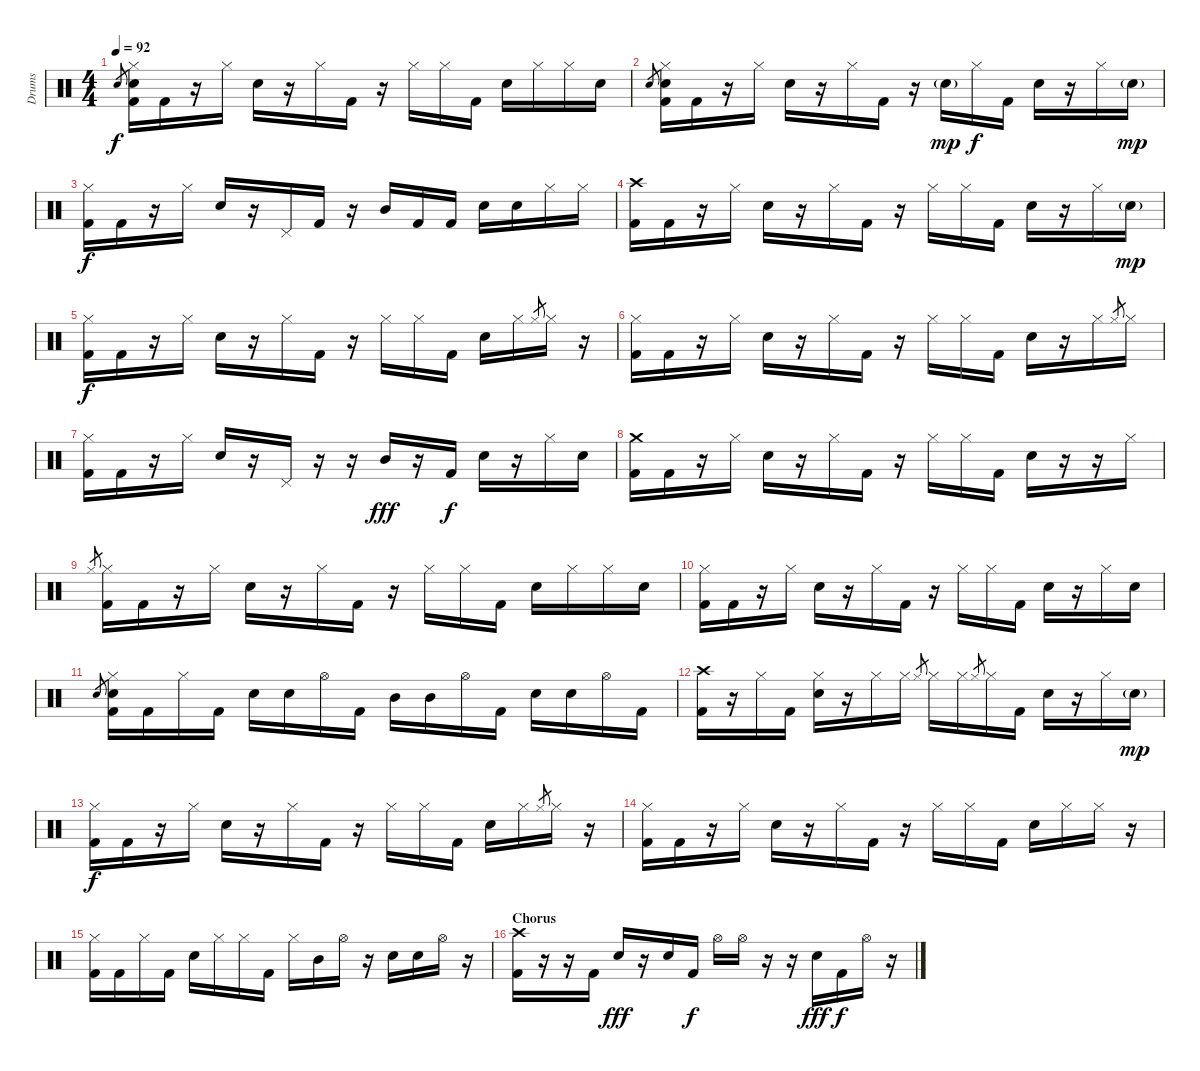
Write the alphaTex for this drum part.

\track ("Drums" "Drums") {instrument percussion}
\staff {score}
\articulation defaults
\ts (4 4)
\tempo 92
\clef neutral
\ks c "Electric Snare (hit)".8{gr dy f}
("Kick (hit) 2" "Hi-Hat (closed)" "Electric Snare (hit)").16 "Kick (hit) 2".16 r.16 "Hi-Hat (closed)".16 "Electric Snare (hit)".16 r.16 "Hi-Hat (closed)".16 "Kick (hit) 2".16 r.16 "Hi-Hat (closed)".16 "Hi-Hat (closed)".16 "Kick (hit) 2".16 "Electric Snare (hit)".16 "Hi-Hat (closed)".16 "Hi-Hat (closed)".16 "Electric Snare (hit)".16 |
"Electric Snare (hit)".8{gr} ("Kick (hit) 2" "Hi-Hat (closed)" "Electric Snare (hit)").16 "Kick (hit) 2".16 r.16 "Hi-Hat (closed)".16 "Electric Snare (hit)".16 r.16 "Hi-Hat (closed)".16 "Kick (hit) 2".16 r.16 "Electric Snare (hit)"{g}.16{dy mp} "Hi-Hat (closed)".16{dy f} "Kick (hit) 2".16 "Electric Snare (hit)".16 r.16 "Hi-Hat (closed)".16 "Electric Snare (hit)"{g}.16{dy mp} |
("Kick (hit) 2" "Hi-Hat (closed)").16{dy f} "Kick (hit) 2".16 r.16 "Hi-Hat (closed)".16 "Electric Snare (hit)".16 r.16 "Pedal Hi-Hat (hit)".16 "Kick (hit) 2".16 r.16 "Mid Tom (hit)".16 "Kick (hit) 2".16 "Kick (hit) 2".16 "Electric Snare (hit)".16 "Electric Snare (hit)".16 "Hi-Hat (closed)".16 "Hi-Hat (closed)".16 |
("Kick (hit) 2" "Crash high (hit)").16 "Kick (hit) 2".16 r.16 "Hi-Hat (closed)".16 "Electric Snare (hit)".16 r.16 "Hi-Hat (closed)".16 "Kick (hit) 2".16 r.16 "Hi-Hat (closed)".16 "Hi-Hat (closed)".16 "Kick (hit) 2".16 "Electric Snare (hit)".16 r.16 "Hi-Hat (closed)".16 "Electric Snare (hit)"{g}.16{dy mp} |
("Kick (hit) 2" "Hi-Hat (closed)").16{dy f} "Kick (hit) 2".16 r.16 "Hi-Hat (closed)".16 "Electric Snare (hit)".16 r.16 "Hi-Hat (closed)".16 "Kick (hit) 2".16 r.16 "Hi-Hat (closed)".16 "Hi-Hat (closed)".16 "Kick (hit) 2".16 "Electric Snare (hit)".16 "Hi-Hat (closed)".16 "Hi-Hat (closed)".8{gr} "Hi-Hat (closed)".16 r.16 |
("Kick (hit) 2" "Hi-Hat (closed)").16 "Kick (hit) 2".16 r.16 "Hi-Hat (closed)".16 "Electric Snare (hit)".16 r.16 "Hi-Hat (closed)".16 "Kick (hit) 2".16 r.16 "Hi-Hat (closed)".16 "Hi-Hat (closed)".16 "Kick (hit) 2".16 "Electric Snare (hit)".16 r.16 "Hi-Hat (closed)".16 "Hi-Hat (closed)".8{gr} "Hi-Hat (closed)".16 |
("Kick (hit) 2" "Hi-Hat (closed)").16 "Kick (hit) 2".16 r.16 "Hi-Hat (closed)".16 "Electric Snare (hit)".16 r.16 "Pedal Hi-Hat (hit)".16 r.16 r.16 "Mid Tom (hit)".16{dy fff} r.16 "Kick (hit) 2".16{dy f} "Electric Snare (hit)".16 r.16 "Hi-Hat (closed)".16 "Electric Snare (hit)".16 |
("Kick (hit) 2" "Crash medium (hit)").16 "Kick (hit) 2".16 r.16 "Hi-Hat (closed)".16 "Electric Snare (hit)".16 r.16 "Hi-Hat (closed)".16 "Kick (hit) 2".16 r.16 "Hi-Hat (closed)".16 "Hi-Hat (closed)".16 "Kick (hit) 2".16 "Electric Snare (hit)".16 r.16 r.16 "Hi-Hat (closed)".16 |
"Hi-Hat (closed)".8{gr} ("Kick (hit) 2" "Hi-Hat (closed)").16 "Kick (hit) 2".16 r.16 "Hi-Hat (closed)".16 "Electric Snare (hit)".16 r.16 "Hi-Hat (closed)".16 "Kick (hit) 2".16 r.16 "Hi-Hat (closed)".16 "Hi-Hat (closed)".16 "Kick (hit) 2".16 "Electric Snare (hit)".16 "Hi-Hat (closed)".16 "Hi-Hat (closed)".16 "Electric Snare (hit)".16 |
("Kick (hit) 2" "Hi-Hat (closed)").16 "Kick (hit) 2".16 r.16 "Hi-Hat (closed)".16 "Electric Snare (hit)".16 r.16 "Hi-Hat (closed)".16 "Kick (hit) 2".16 r.16 "Hi-Hat (closed)".16 "Hi-Hat (closed)".16 "Kick (hit) 2".16 "Electric Snare (hit)".16 r.16 "Hi-Hat (closed)".16 "Electric Snare (hit)".16 |
"Electric Snare (hit)".8{gr} ("Kick (hit) 2" "Hi-Hat (closed)" "Electric Snare (hit)").16 "Kick (hit) 2".16 "Hi-Hat (closed)".16 "Kick (hit) 2".16 "Electric Snare (hit)".16 "Electric Snare (hit)".16 "Hi-Hat (open)".16 "Kick (hit) 2".16 "Mid Tom (hit)".16 "Mid Tom (hit)".16 "Hi-Hat (open)".16 "Kick (hit) 2".16 "Electric Snare (hit)".16 "Electric Snare (hit)".16 "Hi-Hat (open)".16 "Kick (hit) 2".16 |
("Kick (hit) 2" "Crash high (hit)").16 r.16 "Hi-Hat (closed)".16 "Kick (hit) 2".16 ("Hi-Hat (closed)" "Electric Snare (hit)").16 r.16 "Hi-Hat (closed)".16 "Hi-Hat (closed)".16 "Hi-Hat (closed)".8{gr} "Hi-Hat (closed)".16 "Hi-Hat (closed)".16 "Hi-Hat (closed)".8{gr} "Hi-Hat (closed)".16 "Kick (hit) 2".16 "Electric Snare (hit)".16 r.16 "Hi-Hat (closed)".16 "Electric Snare (hit)"{g}.16{dy mp} |
("Kick (hit) 2" "Hi-Hat (closed)").16{dy f} "Kick (hit) 2".16 r.16 "Hi-Hat (closed)".16 "Electric Snare (hit)".16 r.16 "Hi-Hat (closed)".16 "Kick (hit) 2".16 r.16 "Hi-Hat (closed)".16 "Hi-Hat (closed)".16 "Kick (hit) 2".16 "Electric Snare (hit)".16 "Hi-Hat (closed)".16 "Hi-Hat (closed)".8{gr} "Hi-Hat (closed)".16 r.16 |
("Kick (hit) 2" "Hi-Hat (closed)").16 "Kick (hit) 2".16 r.16 "Hi-Hat (closed)".16 "Electric Snare (hit)".16 r.16 "Hi-Hat (closed)".16 "Kick (hit) 2".16 r.16 "Hi-Hat (closed)".16 "Hi-Hat (closed)".16 "Kick (hit) 2".16 "Electric Snare (hit)".16 "Hi-Hat (closed)".16 "Hi-Hat (closed)".16 r.16 |
("Kick (hit) 2" "Hi-Hat (closed)").16 "Kick (hit) 2".16 "Hi-Hat (closed)".16 "Kick (hit) 2".16 "Electric Snare (hit)".16 "Hi-Hat (closed)".16 "Hi-Hat (closed)".16 "Kick (hit) 2".16 "Hi-Hat (closed)".16 "Mid Tom (hit)".16 "Hi-Hat (open)".16 r.16 "Electric Snare (hit)".16 "Electric Snare (hit)".16 "Hi-Hat (open)".16 r.16 |
\section ("" "Chorus")
("Kick (hit) 2" "Crash high (hit)").16 r.16 r.16 "Kick (hit) 2".16 "Electric Snare (hit)".16{dy fff} r.16 "Electric Snare (hit)".16 "Kick (hit) 2".16{dy f} "Hi-Hat (open)".16 "Hi-Hat (open)".16 r.16 r.16 "Electric Snare (hit)".16{dy fff} "Kick (hit) 2".16{dy f} "Hi-Hat (open)".16 r.16
